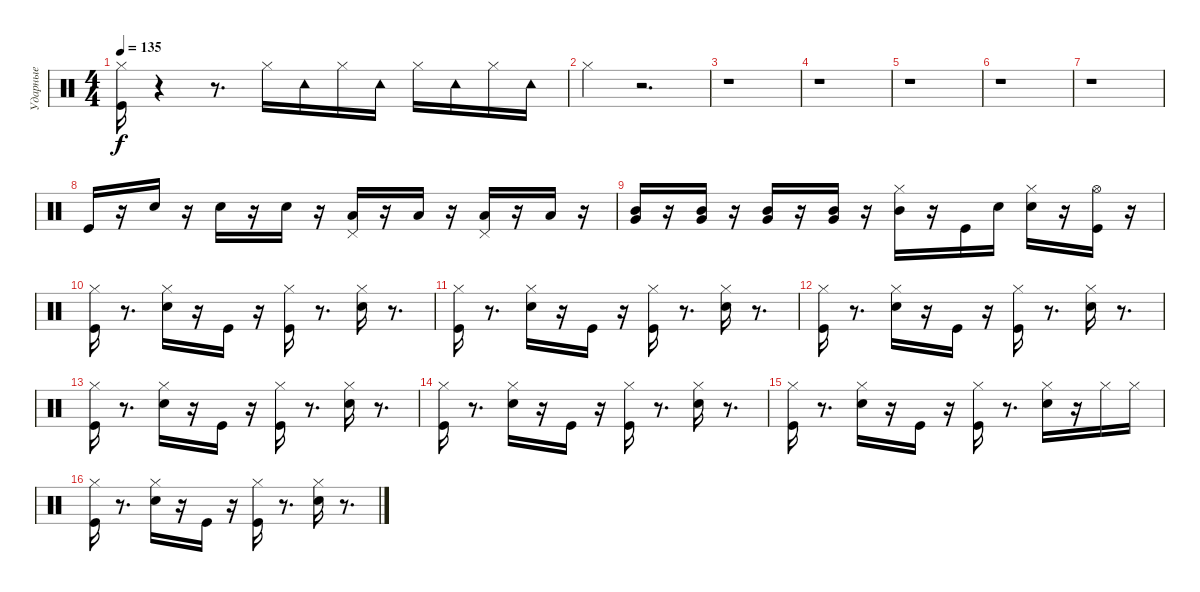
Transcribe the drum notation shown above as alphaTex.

\track ("Ударные" "Ударные") {instrument percussion}
\staff {score}
\articulation defaults
\ts (4 4)
\tempo 135
\clef neutral
\ks c
("Kick (hit)" "Hi-Hat (closed)").16{dy f} r.4 r.8{d} "Hi-Hat (closed)".16 "Tambourine (hit)".16 "Hi-Hat (closed)".16 "Tambourine (hit)".16 "Hi-Hat (closed)".16 "Tambourine (hit)".16 "Hi-Hat (closed)".16 "Tambourine (hit)".16 |
"Hi-Hat (closed)".4 r.2{d} |
r.1 |
r.1 |
r.1 |
r.1 |
r.1 |
"Kick (hit)".16 r.16 "Snare (hit) 2".16 r.16 "Snare (hit) 2".16 r.16 "Snare (hit) 2".16 r.16 ("Pedal Hi-Hat (hit)" "Low Floor Tom (hit)").16 r.16 "Low Floor Tom (hit)".16 r.16 ("Pedal Hi-Hat (hit)" "Low Floor Tom (hit)").16 r.16 "Low Floor Tom (hit)".16 r.16 |
("Very Low Tom (hit)" "Mid Tom (hit)").16 r.16 ("Very Low Tom (hit)" "Mid Tom (hit)").16 r.16 ("Very Low Tom (hit)" "Mid Tom (hit)").16 r.16 ("Very Low Tom (hit)" "Mid Tom (hit)").16 r.16 ("Mid Tom (hit)" "Hi-Hat (closed)").16 r.16 "Kick (hit)".16 "Snare (hit) 2".16 ("Snare (hit) 2" "Hi-Hat (closed)").16 r.16 ("Kick (hit)" "Hi-Hat (open)").16 r.16 |
("Hi-Hat (closed)" "Kick (hit)").16 r.8{d} ("Hi-Hat (closed)" "Snare (hit) 2").16 r.16 "Kick (hit)".16 r.16 ("Hi-Hat (closed)" "Kick (hit)").16 r.8{d} ("Hi-Hat (closed)" "Snare (hit) 2").16 r.8{d} |
("Hi-Hat (closed)" "Kick (hit)").16 r.8{d} ("Hi-Hat (closed)" "Snare (hit) 2").16 r.16 "Kick (hit)".16 r.16 ("Hi-Hat (closed)" "Kick (hit)").16 r.8{d} ("Hi-Hat (closed)" "Snare (hit) 2").16 r.8{d} |
("Hi-Hat (closed)" "Kick (hit)").16 r.8{d} ("Hi-Hat (closed)" "Snare (hit) 2").16 r.16 "Kick (hit)".16 r.16 ("Hi-Hat (closed)" "Kick (hit)").16 r.8{d} ("Hi-Hat (closed)" "Snare (hit) 2").16 r.8{d} |
("Hi-Hat (closed)" "Kick (hit)").16 r.8{d} ("Hi-Hat (closed)" "Snare (hit) 2").16 r.16 "Kick (hit)".16 r.16 ("Hi-Hat (closed)" "Kick (hit)").16 r.8{d} ("Hi-Hat (closed)" "Snare (hit) 2").16 r.8{d} |
("Hi-Hat (closed)" "Kick (hit)").16 r.8{d} ("Hi-Hat (closed)" "Snare (hit) 2").16 r.16 "Kick (hit)".16 r.16 ("Hi-Hat (closed)" "Kick (hit)").16 r.8{d} ("Hi-Hat (closed)" "Snare (hit) 2").16 r.8{d} |
("Hi-Hat (closed)" "Kick (hit)").16 r.8{d} ("Hi-Hat (closed)" "Snare (hit) 2").16 r.16 "Kick (hit)".16 r.16 ("Hi-Hat (closed)" "Kick (hit)").16 r.8{d} ("Hi-Hat (closed)" "Snare (hit) 2").16 r.16 "Hi-Hat (closed)".16 "Hi-Hat (closed)".16 |
("Hi-Hat (closed)" "Kick (hit)").16 r.8{d} ("Hi-Hat (closed)" "Snare (hit) 2").16 r.16 "Kick (hit)".16 r.16 ("Hi-Hat (closed)" "Kick (hit)").16 r.8{d} ("Hi-Hat (closed)" "Snare (hit) 2").16 r.8{d}
